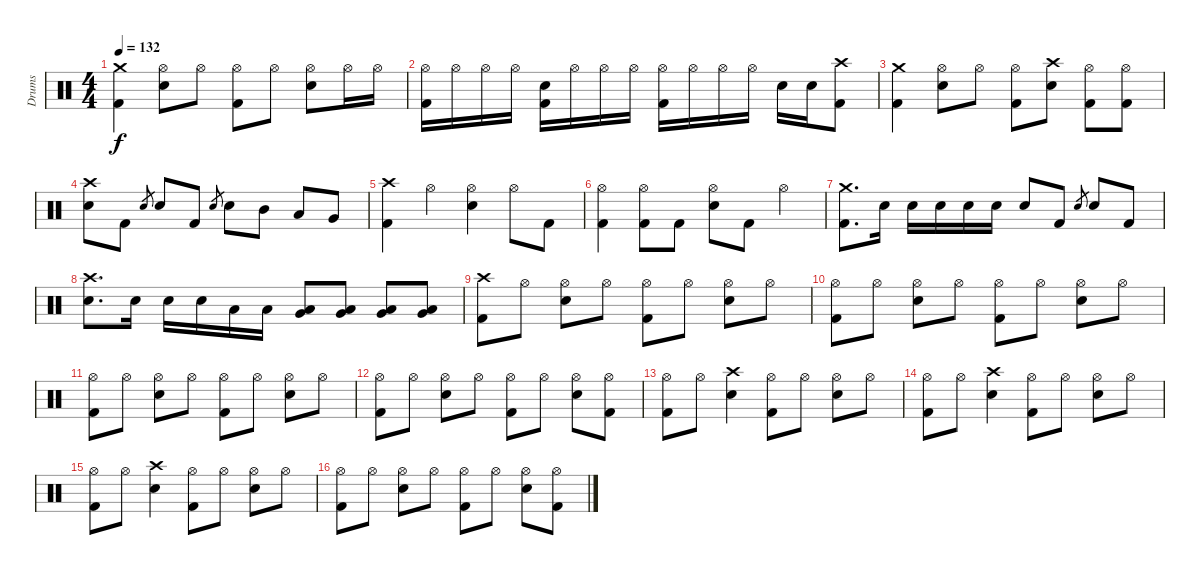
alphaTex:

\track ("Drums" "Drums") {instrument percussion}
\staff {score}
\articulation defaults
\ts (4 4)
\tempo 132
\clef neutral
\ks c
("Crash medium (hit)" "Kick (hit) 2").4{dy f} ("Hi-Hat (open)" "Snare (hit) 2").8 "Hi-Hat (open)".8 ("Hi-Hat (open)" "Kick (hit) 2").8 "Hi-Hat (open)".8 ("Hi-Hat (open)" "Snare (hit) 2").8 "Hi-Hat (open)".16 "Hi-Hat (open)".16 |
("Hi-Hat (open)" "Kick (hit) 2").16 "Hi-Hat (open)".16 "Hi-Hat (open)".16 "Hi-Hat (open)".16 ("Snare (hit) 2" "Kick (hit) 2").16 "Hi-Hat (open)".16 "Hi-Hat (open)".16 "Hi-Hat (open)".16 ("Hi-Hat (open)" "Kick (hit) 2").16 "Hi-Hat (open)".16 "Hi-Hat (open)".16 "Hi-Hat (open)".16 "Snare (hit) 2".16 "Snare (hit) 2".16 ("Crash high (hit)" "Kick (hit) 2").8 |
("Crash medium (hit)" "Kick (hit) 2").4 ("Hi-Hat (open)" "Snare (hit) 2").8 "Hi-Hat (open)".8 ("Hi-Hat (open)" "Kick (hit) 2").8 ("Crash high (hit)" "Snare (hit) 2").8 ("Hi-Hat (open)" "Kick (hit) 2").8 ("Hi-Hat (open)" "Kick (hit) 2").8 |
("Crash high (hit)" "Snare (hit) 2").8 "Kick (hit) 2".8 "Snare (hit) 2".8{gr} "Snare (hit) 2".8 "Kick (hit) 2".8 "Snare (hit) 2".8{gr} "Snare (hit) 2".8 "Mid Tom (hit)".8 "Low Tom (hit)".8 "Very Low Tom (hit)".8 |
("Crash high (hit)" "Kick (hit) 2").4 "Hi-Hat (open)".4 ("Hi-Hat (open)" "Snare (hit) 2").4 "Hi-Hat (open)".8 "Kick (hit) 2".8 |
("Hi-Hat (open)" "Kick (hit) 2").4 ("Hi-Hat (open)" "Kick (hit) 2").8 "Kick (hit) 2".8 ("Hi-Hat (open)" "Snare (hit) 2").8 "Kick (hit) 2".8 "Hi-Hat (open)".4 |
("Crash medium (hit)" "Kick (hit) 2").8{d} "Snare (hit) 2".16 "Snare (hit) 2".16 "Snare (hit) 2".16 "Snare (hit) 2".16 "Snare (hit) 2".16 "Snare (hit) 2".8 "Kick (hit) 2".8 "Snare (hit) 2".8{gr} "Snare (hit) 2".8 "Kick (hit) 2".8 |
("Crash high (hit)" "Snare (hit) 2").8{d} "Snare (hit) 2".16 "Snare (hit) 2".16 "Snare (hit) 2".16 "Low Tom (hit)".16 "Low Tom (hit)".16 ("Very Low Tom (hit)" "Low Floor Tom (hit)").8 ("Very Low Tom (hit)" "Low Floor Tom (hit)").8 ("Very Low Tom (hit)" "Low Floor Tom (hit)").8 ("Very Low Tom (hit)" "Low Floor Tom (hit)").8 |
("Crash high (hit)" "Kick (hit) 2").8 "Hi-Hat (open)".8 ("Hi-Hat (open)" "Snare (hit) 2").8 "Hi-Hat (open)".8 ("Hi-Hat (open)" "Kick (hit) 2").8 "Hi-Hat (open)".8 ("Hi-Hat (open)" "Snare (hit) 2").8 "Hi-Hat (open)".8 |
("Hi-Hat (open)" "Kick (hit) 2").8 "Hi-Hat (open)".8 ("Hi-Hat (open)" "Snare (hit) 2").8 "Hi-Hat (open)".8 ("Hi-Hat (open)" "Kick (hit) 2").8 "Hi-Hat (open)".8 ("Hi-Hat (open)" "Snare (hit) 2").8 "Hi-Hat (open)".8 |
("Hi-Hat (open)" "Kick (hit) 2").8 "Hi-Hat (open)".8 ("Hi-Hat (open)" "Snare (hit) 2").8 "Hi-Hat (open)".8 ("Hi-Hat (open)" "Kick (hit) 2").8 "Hi-Hat (open)".8 ("Hi-Hat (open)" "Snare (hit) 2").8 "Hi-Hat (open)".8 |
("Hi-Hat (open)" "Kick (hit) 2").8 "Hi-Hat (open)".8 ("Hi-Hat (open)" "Snare (hit) 2").8 "Hi-Hat (open)".8 ("Hi-Hat (open)" "Kick (hit) 2").8 "Hi-Hat (open)".8 ("Hi-Hat (open)" "Snare (hit) 2").8 ("Hi-Hat (open)" "Kick (hit) 2").8 |
("Hi-Hat (open)" "Kick (hit) 2").8 "Hi-Hat (open)".8 ("Crash high (hit)" "Snare (hit) 2").4 ("Hi-Hat (open)" "Kick (hit) 2").8 "Hi-Hat (open)".8 ("Hi-Hat (open)" "Snare (hit) 2").8 "Hi-Hat (open)".8 |
("Hi-Hat (open)" "Kick (hit) 2").8 "Hi-Hat (open)".8 ("Crash high (hit)" "Snare (hit) 2").4 ("Hi-Hat (open)" "Kick (hit) 2").8 "Hi-Hat (open)".8 ("Hi-Hat (open)" "Snare (hit) 2").8 "Hi-Hat (open)".8 |
("Hi-Hat (open)" "Kick (hit) 2").8 "Hi-Hat (open)".8 ("Crash high (hit)" "Snare (hit) 2").4 ("Hi-Hat (open)" "Kick (hit) 2").8 "Hi-Hat (open)".8 ("Hi-Hat (open)" "Snare (hit) 2").8 "Hi-Hat (open)".8 |
("Hi-Hat (open)" "Kick (hit) 2").8 "Hi-Hat (open)".8 ("Hi-Hat (open)" "Snare (hit) 2").8 "Hi-Hat (open)".8 ("Hi-Hat (open)" "Kick (hit) 2").8 "Hi-Hat (open)".8 ("Hi-Hat (open)" "Snare (hit) 2").8 ("Hi-Hat (open)" "Kick (hit) 2").8
